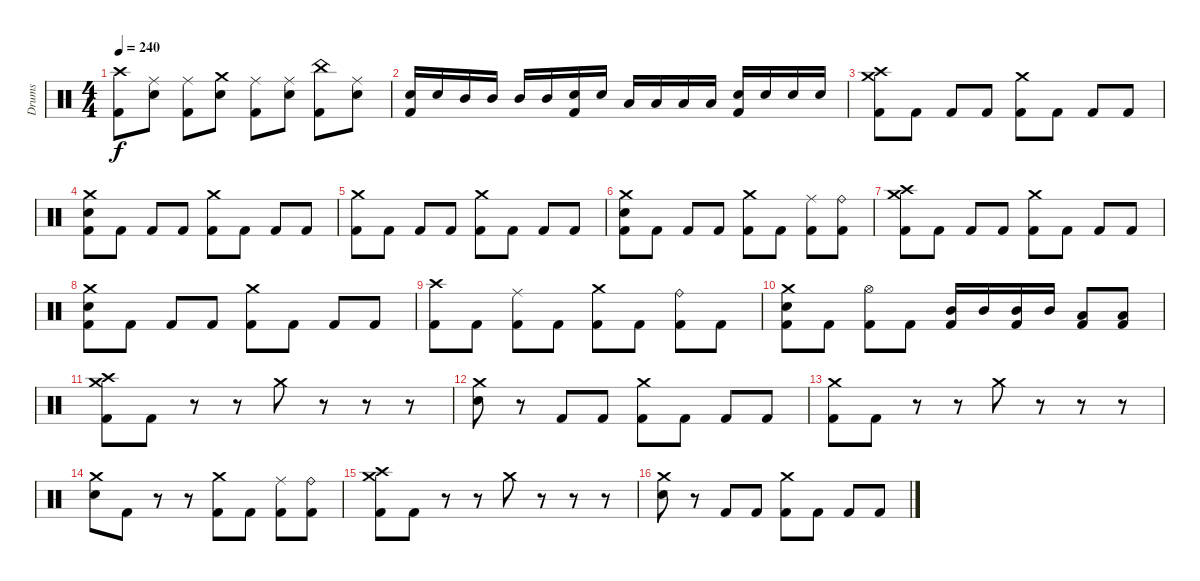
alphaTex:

\track ("Drums" "Drums") {instrument percussion}
\staff {score}
\articulation defaults
\ts (4 4)
\tempo 240
\clef neutral
\ks c
("Crash high (hit)" "Kick (hit) 2").8{dy f} ("Ride (middle)" "Electric Snare (hit)").8 ("Ride (middle)" "Kick (hit) 2").8 ("Crash medium (hit)" "Electric Snare (hit)").8 ("Ride (middle)" "Kick (hit) 2").8 ("Ride (middle)" "Electric Snare (hit)").8 ("China (hit)" "Kick (hit) 2").8 ("Ride (middle)" "Electric Snare (hit)").8 |
("Electric Snare (hit)" "Kick (hit) 2").16 "Electric Snare (hit)".16 "Mid Tom (hit)".16 "Mid Tom (hit)".16 "Mid Tom (hit)".16 "Mid Tom (hit)".16 ("Electric Snare (hit)" "Kick (hit) 2").16 "Electric Snare (hit)".16 "Low Tom (hit)".16 "Low Tom (hit)".16 "Low Tom (hit)".16 "Low Tom (hit)".16 ("Electric Snare (hit)" "Kick (hit) 2").16 "Electric Snare (hit)".16 "Electric Snare (hit)".16 "Electric Snare (hit)".16 |
("Crash medium (hit)" "Crash high (hit)" "Kick (hit) 2").8 "Kick (hit) 2".8 "Kick (hit) 2".8 "Kick (hit) 2".8 ("Crash medium (hit)" "Kick (hit) 2").8 "Kick (hit) 2".8 "Kick (hit) 2".8 "Kick (hit) 2".8 |
("Crash medium (hit)" "Electric Snare (hit)" "Kick (hit) 2").8 "Kick (hit) 2".8 "Kick (hit) 2".8 "Kick (hit) 2".8 ("Crash medium (hit)" "Kick (hit) 2").8 "Kick (hit) 2".8 "Kick (hit) 2".8 "Kick (hit) 2".8 |
("Crash medium (hit)" "Kick (hit) 2").8 "Kick (hit) 2".8 "Kick (hit) 2".8 "Kick (hit) 2".8 ("Crash medium (hit)" "Kick (hit) 2").8 "Kick (hit) 2".8 "Kick (hit) 2".8 "Kick (hit) 2".8 |
("Crash medium (hit)" "Electric Snare (hit)" "Kick (hit) 2").8 "Kick (hit) 2".8 "Kick (hit) 2".8 "Kick (hit) 2".8 ("Crash medium (hit)" "Kick (hit) 2").8 "Kick (hit) 2".8 ("Ride (middle)" "Kick (hit) 2").8 ("Ride (bell)" "Kick (hit) 2").8 |
("Crash medium (hit)" "Crash high (hit)" "Kick (hit) 2").8 "Kick (hit) 2".8 "Kick (hit) 2".8 "Kick (hit) 2".8 ("Crash medium (hit)" "Kick (hit) 2").8 "Kick (hit) 2".8 "Kick (hit) 2".8 "Kick (hit) 2".8 |
("Crash medium (hit)" "Electric Snare (hit)" "Kick (hit) 2").8 "Kick (hit) 2".8 "Kick (hit) 2".8 "Kick (hit) 2".8 ("Crash medium (hit)" "Kick (hit) 2").8 "Kick (hit) 2".8 "Kick (hit) 2".8 "Kick (hit) 2".8 |
("Crash high (hit)" "Kick (hit) 2").8 "Kick (hit) 2".8 ("Ride (middle)" "Kick (hit) 2").8 "Kick (hit) 2".8 ("Crash medium (hit)" "Kick (hit) 2").8 "Kick (hit) 2".8 ("Ride (bell)" "Kick (hit) 2").8 "Kick (hit) 2".8 |
("Crash medium (hit)" "Electric Snare (hit)" "Kick (hit) 2").8 "Kick (hit) 2".8 ("Hi-Hat (open)" "Kick (hit) 2").8 "Kick (hit) 2".8 ("Mid Tom (hit)" "Kick (hit) 2").16 "Mid Tom (hit)".16 ("Mid Tom (hit)" "Kick (hit) 2").16 "Mid Tom (hit)".16 ("Low Tom (hit)" "Kick (hit) 2").8 ("Low Tom (hit)" "Kick (hit) 2").8 |
("Crash medium (hit)" "Crash high (hit)" "Kick (hit) 2").8 "Kick (hit) 2".8 r.8 r.8 "Crash medium (hit)".8 r.8 r.8 r.8 |
("Crash medium (hit)" "Electric Snare (hit)").8 r.8 "Kick (hit) 2".8 "Kick (hit) 2".8 ("Crash medium (hit)" "Kick (hit) 2").8 "Kick (hit) 2".8 "Kick (hit) 2".8 "Kick (hit) 2".8 |
("Crash medium (hit)" "Kick (hit) 2").8 "Kick (hit) 2".8 r.8 r.8 "Crash medium (hit)".8 r.8 r.8 r.8 |
("Crash medium (hit)" "Electric Snare (hit)").8 "Kick (hit) 2".8 r.8 r.8 ("Crash medium (hit)" "Kick (hit) 2").8 "Kick (hit) 2".8 ("Ride (middle)" "Kick (hit) 2").8 ("Ride (bell)" "Kick (hit) 2").8 |
("Crash medium (hit)" "Crash high (hit)" "Kick (hit) 2").8 "Kick (hit) 2".8 r.8 r.8 "Crash medium (hit)".8 r.8 r.8 r.8 |
("Crash medium (hit)" "Electric Snare (hit)").8 r.8 "Kick (hit) 2".8 "Kick (hit) 2".8 ("Crash medium (hit)" "Kick (hit) 2").8 "Kick (hit) 2".8 "Kick (hit) 2".8 "Kick (hit) 2".8
